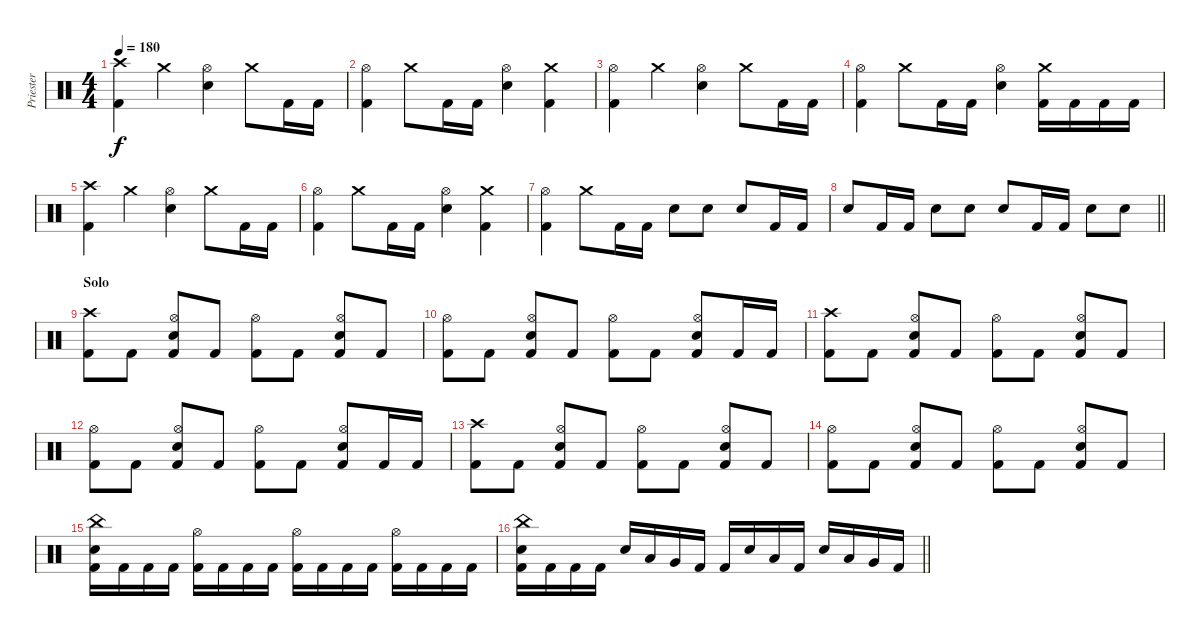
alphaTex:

\track ("Priester" "Priester") {instrument percussion}
\staff {score}
\articulation defaults
\ts (4 4)
\tempo 180
\clef neutral
\ks c
("Crash high (hit)" "Kick (hit) 2").4{dy f} "Crash medium (hit)".4 ("Hi-Hat (open)" "Electric Snare (hit)").4 "Crash medium (hit)".8 "Kick (hit) 2".16 "Kick (hit) 2".16 |
("Hi-Hat (open)" "Kick (hit) 2").4 "Crash medium (hit)".8 "Kick (hit) 2".16 "Kick (hit) 2".16 ("Hi-Hat (open)" "Electric Snare (hit)").4 ("Crash medium (hit)" "Kick (hit) 2").4 |
("Hi-Hat (open)" "Kick (hit) 2").4 "Crash medium (hit)".4 ("Hi-Hat (open)" "Electric Snare (hit)").4 "Crash medium (hit)".8 "Kick (hit) 2".16 "Kick (hit) 2".16 |
("Hi-Hat (open)" "Kick (hit) 2").4 "Crash medium (hit)".8 "Kick (hit) 2".16 "Kick (hit) 2".16 ("Hi-Hat (open)" "Electric Snare (hit)").4 ("Crash medium (hit)" "Kick (hit) 2").16 "Kick (hit) 2".16 "Kick (hit) 2".16 "Kick (hit) 2".16 |
("Crash high (hit)" "Kick (hit) 2").4 "Crash medium (hit)".4 ("Hi-Hat (open)" "Electric Snare (hit)").4 "Crash medium (hit)".8 "Kick (hit) 2".16 "Kick (hit) 2".16 |
("Hi-Hat (open)" "Kick (hit) 2").4 "Crash medium (hit)".8 "Kick (hit) 2".16 "Kick (hit) 2".16 ("Hi-Hat (open)" "Electric Snare (hit)").4 ("Crash medium (hit)" "Kick (hit) 2").4 |
("Hi-Hat (open)" "Kick (hit) 2").4 "Crash medium (hit)".8 "Kick (hit) 2".16 "Kick (hit) 2".16 "Electric Snare (hit)".8 "Electric Snare (hit)".8 "Electric Snare (hit)".8 "Kick (hit) 2".16 "Kick (hit) 2".16 |
\barLineRight lightlight "Electric Snare (hit)".8 "Kick (hit) 2".16 "Kick (hit) 2".16 "Electric Snare (hit)".8 "Electric Snare (hit)".8 "Electric Snare (hit)".8 "Kick (hit) 2".16 "Kick (hit) 2".16 "Electric Snare (hit)".8 "Electric Snare (hit)".8
|
\section ("" "Solo")
("Crash high (hit)" "Kick (hit) 2").8 "Kick (hit) 2".8 ("Hi-Hat (open)" "Electric Snare (hit)" "Kick (hit) 2").8 "Kick (hit) 2".8 ("Hi-Hat (open)" "Kick (hit) 2").8 "Kick (hit) 2".8 ("Hi-Hat (open)" "Electric Snare (hit)" "Kick (hit) 2").8 "Kick (hit) 2".8 |
("Hi-Hat (open)" "Kick (hit) 2").8 "Kick (hit) 2".8 ("Hi-Hat (open)" "Electric Snare (hit)" "Kick (hit) 2").8 "Kick (hit) 2".8 ("Hi-Hat (open)" "Kick (hit) 2").8 "Kick (hit) 2".8 ("Hi-Hat (open)" "Electric Snare (hit)" "Kick (hit) 2").8 "Kick (hit) 2".16 "Kick (hit) 2".16 |
("Crash high (hit)" "Kick (hit) 2").8 "Kick (hit) 2".8 ("Hi-Hat (open)" "Electric Snare (hit)" "Kick (hit) 2").8 "Kick (hit) 2".8 ("Hi-Hat (open)" "Kick (hit) 2").8 "Kick (hit) 2".8 ("Hi-Hat (open)" "Electric Snare (hit)" "Kick (hit) 2").8 "Kick (hit) 2".8 |
("Hi-Hat (open)" "Kick (hit) 2").8 "Kick (hit) 2".8 ("Hi-Hat (open)" "Electric Snare (hit)" "Kick (hit) 2").8 "Kick (hit) 2".8 ("Hi-Hat (open)" "Kick (hit) 2").8 "Kick (hit) 2".8 ("Hi-Hat (open)" "Electric Snare (hit)" "Kick (hit) 2").8 "Kick (hit) 2".16 "Kick (hit) 2".16 |
("Crash high (hit)" "Kick (hit) 2").8 "Kick (hit) 2".8 ("Hi-Hat (open)" "Electric Snare (hit)" "Kick (hit) 2").8 "Kick (hit) 2".8 ("Hi-Hat (open)" "Kick (hit) 2").8 "Kick (hit) 2".8 ("Hi-Hat (open)" "Electric Snare (hit)" "Kick (hit) 2").8 "Kick (hit) 2".8 |
("Hi-Hat (open)" "Kick (hit) 2").8 "Kick (hit) 2".8 ("Hi-Hat (open)" "Electric Snare (hit)" "Kick (hit) 2").8 "Kick (hit) 2".8 ("Hi-Hat (open)" "Kick (hit) 2").8 "Kick (hit) 2".8 ("Hi-Hat (open)" "Electric Snare (hit)" "Kick (hit) 2").8 "Kick (hit) 2".8 |
("China (hit)" "Electric Snare (hit)" "Kick (hit) 2").16 "Kick (hit) 2".16 "Kick (hit) 2".16 "Kick (hit) 2".16 ("Hi-Hat (open)" "Kick (hit) 2").16 "Kick (hit) 2".16 "Kick (hit) 2".16 "Kick (hit) 2".16 ("Hi-Hat (open)" "Kick (hit) 2").16 "Kick (hit) 2".16 "Kick (hit) 2".16 "Kick (hit) 2".16 ("Hi-Hat (open)" "Kick (hit) 2").16 "Kick (hit) 2".16 "Kick (hit) 2".16 "Kick (hit) 2".16 |
\barLineRight lightlight
("China (hit)" "Electric Snare (hit)" "Kick (hit) 2").16 "Kick (hit) 2".16 "Kick (hit) 2".16 "Kick (hit) 2".16 "Electric Snare (hit)".16 "Low Tom (hit)".16 "Very Low Tom (hit)".16 "Kick (hit) 2".16 "Kick (hit) 2".16 "Electric Snare (hit)".16 "Low Tom (hit)".16 "Kick (hit) 2".16 "Electric Snare (hit)".16 "Low Tom (hit)".16 "Very Low Tom (hit)".16 "Kick (hit) 2".16
